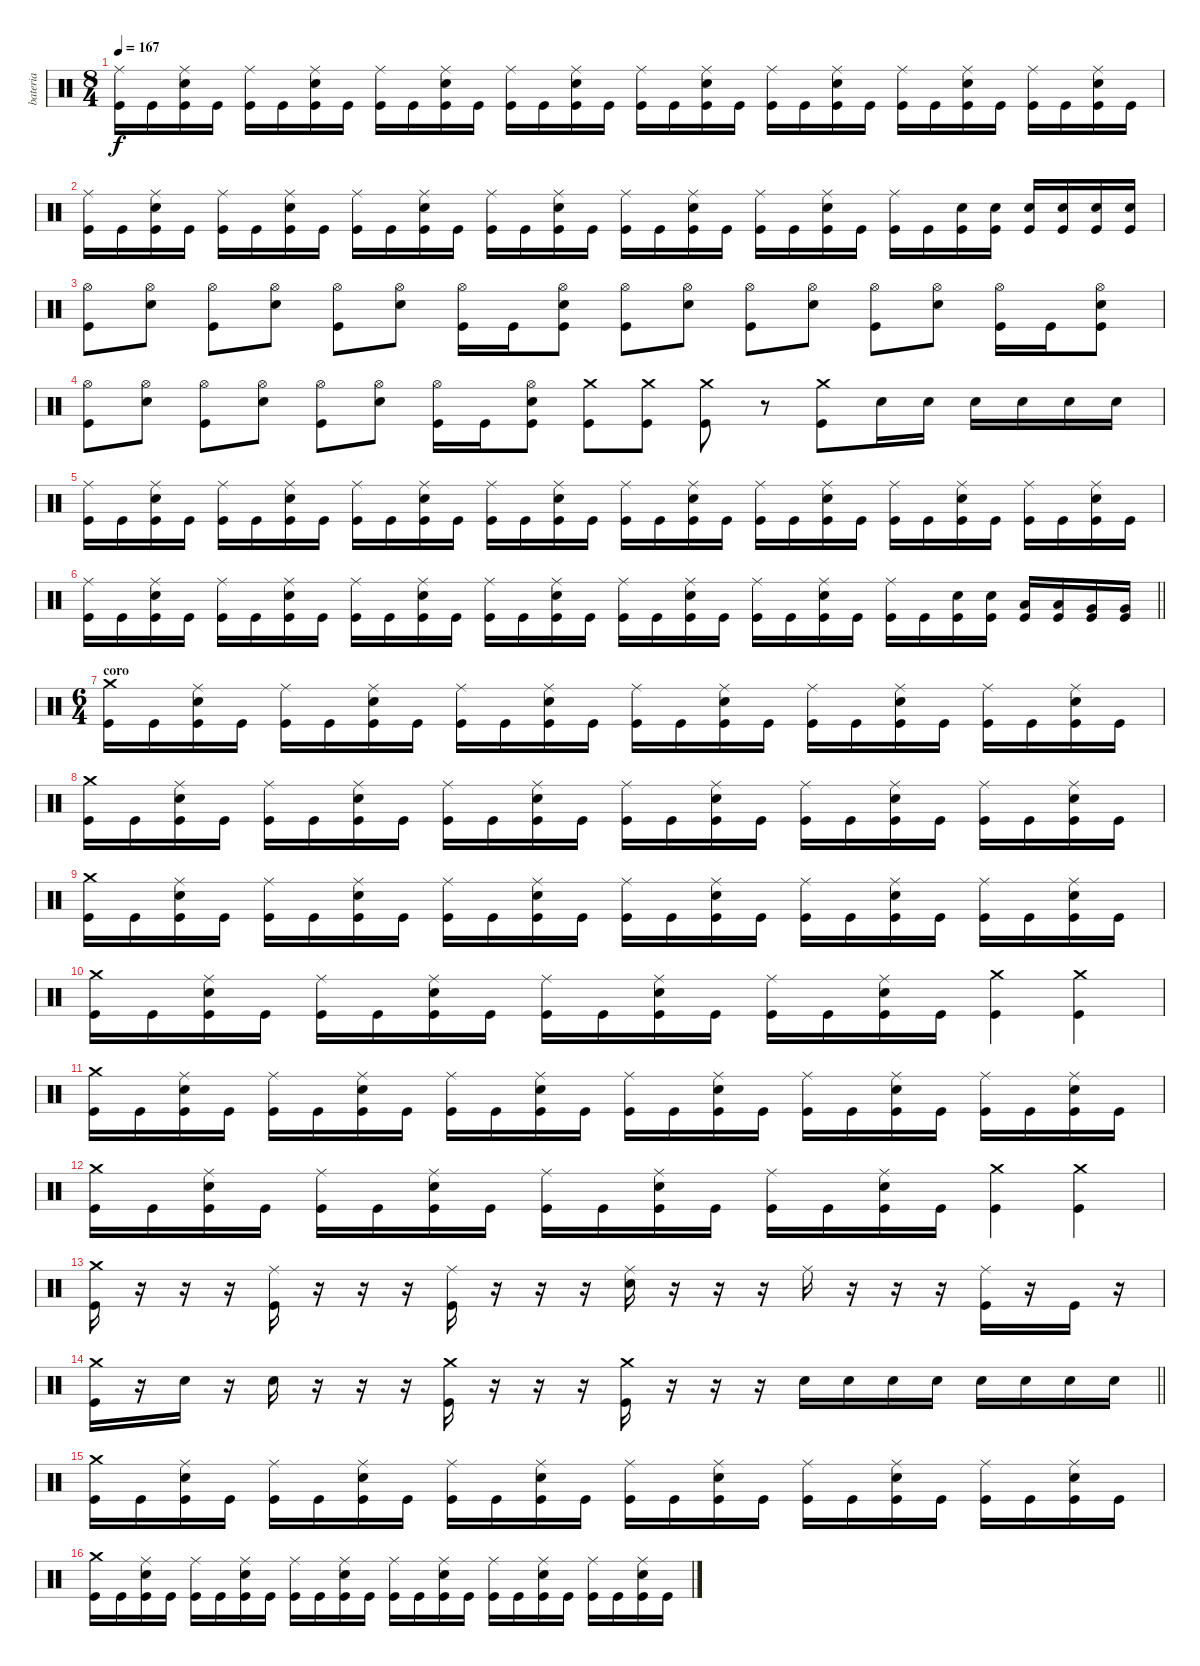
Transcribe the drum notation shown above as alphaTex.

\track ("bateria" "bateria") {instrument percussion}
\staff {score}
\articulation defaults
\ts (8 4)
\tempo 167
\clef neutral
\ks c
("Ride (middle)" "Kick (hit)").16{dy f} "Kick (hit)".16 ("Ride (middle)" "Snare (hit) 2" "Kick (hit)").16 "Kick (hit)".16 ("Ride (middle)" "Kick (hit)").16 "Kick (hit)".16 ("Ride (middle)" "Snare (hit) 2" "Kick (hit)").16 "Kick (hit)".16 ("Ride (middle)" "Kick (hit)").16 "Kick (hit)".16 ("Ride (middle)" "Snare (hit) 2" "Kick (hit)").16 "Kick (hit)".16 ("Ride (middle)" "Kick (hit)").16 "Kick (hit)".16 ("Ride (middle)" "Snare (hit) 2" "Kick (hit)").16 "Kick (hit)".16 ("Ride (middle)" "Kick (hit)").16 "Kick (hit)".16 ("Ride (middle)" "Snare (hit) 2" "Kick (hit)").16 "Kick (hit)".16 ("Ride (middle)" "Kick (hit)").16 "Kick (hit)".16 ("Ride (middle)" "Snare (hit) 2" "Kick (hit)").16 "Kick (hit)".16 ("Ride (middle)" "Kick (hit)").16 "Kick (hit)".16 ("Ride (middle)" "Snare (hit) 2" "Kick (hit)").16 "Kick (hit)".16 ("Ride (middle)" "Kick (hit)").16 "Kick (hit)".16 ("Ride (middle)" "Snare (hit) 2" "Kick (hit)").16 "Kick (hit)".16 |
("Ride (middle)" "Kick (hit)").16 "Kick (hit)".16 ("Ride (middle)" "Snare (hit) 2" "Kick (hit)").16 "Kick (hit)".16 ("Ride (middle)" "Kick (hit)").16 "Kick (hit)".16 ("Ride (middle)" "Snare (hit) 2" "Kick (hit)").16 "Kick (hit)".16 ("Ride (middle)" "Kick (hit)").16 "Kick (hit)".16 ("Ride (middle)" "Snare (hit) 2" "Kick (hit)").16 "Kick (hit)".16 ("Ride (middle)" "Kick (hit)").16 "Kick (hit)".16 ("Ride (middle)" "Snare (hit) 2" "Kick (hit)").16 "Kick (hit)".16 ("Ride (middle)" "Kick (hit)").16 "Kick (hit)".16 ("Ride (middle)" "Snare (hit) 2" "Kick (hit)").16 "Kick (hit)".16 ("Ride (middle)" "Kick (hit)").16 "Kick (hit)".16 ("Ride (middle)" "Snare (hit) 2" "Kick (hit)").16 "Kick (hit)".16 ("Ride (middle)" "Kick (hit)").16 "Kick (hit)".16 ("Snare (hit) 2" "Kick (hit)").16 ("Snare (hit) 2" "Kick (hit)").16 ("Snare (hit) 2" "Kick (hit)").16 ("Snare (hit) 2" "Kick (hit)").16 ("Snare (hit) 2" "Kick (hit)").16 ("Snare (hit) 2" "Kick (hit)").16 |
("Hi-Hat (open)" "Kick (hit)").8 ("Hi-Hat (open)" "Snare (hit) 2").8 ("Hi-Hat (open)" "Kick (hit)").8 ("Hi-Hat (open)" "Snare (hit) 2").8 ("Hi-Hat (open)" "Kick (hit)").8 ("Hi-Hat (open)" "Snare (hit) 2").8 ("Hi-Hat (open)" "Kick (hit)").16 "Kick (hit)".16 ("Hi-Hat (open)" "Snare (hit) 2" "Kick (hit)").8 ("Hi-Hat (open)" "Kick (hit)").8 ("Hi-Hat (open)" "Snare (hit) 2").8 ("Hi-Hat (open)" "Kick (hit)").8 ("Hi-Hat (open)" "Snare (hit) 2").8 ("Hi-Hat (open)" "Kick (hit)").8 ("Hi-Hat (open)" "Snare (hit) 2").8 ("Hi-Hat (open)" "Kick (hit)").16 "Kick (hit)".16 ("Hi-Hat (open)" "Snare (hit) 2" "Kick (hit)").8 |
("Hi-Hat (open)" "Kick (hit)").8 ("Hi-Hat (open)" "Snare (hit) 2").8 ("Hi-Hat (open)" "Kick (hit)").8 ("Hi-Hat (open)" "Snare (hit) 2").8 ("Hi-Hat (open)" "Kick (hit)").8 ("Hi-Hat (open)" "Snare (hit) 2").8 ("Hi-Hat (open)" "Kick (hit)").16 "Kick (hit)".16 ("Hi-Hat (open)" "Snare (hit) 2" "Kick (hit)").8 ("Crash medium (hit)" "Kick (hit)").8 ("Crash medium (hit)" "Kick (hit)").8 ("Crash medium (hit)" "Kick (hit)").8 r.8 ("Crash medium (hit)" "Kick (hit)").8 "Snare (hit) 2".16 "Snare (hit) 2".16 "Snare (hit) 2".16 "Snare (hit) 2".16 "Snare (hit) 2".16 "Snare (hit) 2".16 |
("Ride (middle)" "Kick (hit)").16 "Kick (hit)".16 ("Ride (middle)" "Snare (hit) 2" "Kick (hit)").16 "Kick (hit)".16 ("Ride (middle)" "Kick (hit)").16 "Kick (hit)".16 ("Ride (middle)" "Snare (hit) 2" "Kick (hit)").16 "Kick (hit)".16 ("Ride (middle)" "Kick (hit)").16 "Kick (hit)".16 ("Ride (middle)" "Snare (hit) 2" "Kick (hit)").16 "Kick (hit)".16 ("Ride (middle)" "Kick (hit)").16 "Kick (hit)".16 ("Ride (middle)" "Snare (hit) 2" "Kick (hit)").16 "Kick (hit)".16 ("Ride (middle)" "Kick (hit)").16 "Kick (hit)".16 ("Ride (middle)" "Snare (hit) 2" "Kick (hit)").16 "Kick (hit)".16 ("Ride (middle)" "Kick (hit)").16 "Kick (hit)".16 ("Ride (middle)" "Snare (hit) 2" "Kick (hit)").16 "Kick (hit)".16 ("Ride (middle)" "Kick (hit)").16 "Kick (hit)".16 ("Ride (middle)" "Snare (hit) 2" "Kick (hit)").16 "Kick (hit)".16 ("Ride (middle)" "Kick (hit)").16 "Kick (hit)".16 ("Ride (middle)" "Snare (hit) 2" "Kick (hit)").16 "Kick (hit)".16 |
\barLineRight lightlight
("Ride (middle)" "Kick (hit)").16 "Kick (hit)".16 ("Ride (middle)" "Snare (hit) 2" "Kick (hit)").16 "Kick (hit)".16 ("Ride (middle)" "Kick (hit)").16 "Kick (hit)".16 ("Ride (middle)" "Snare (hit) 2" "Kick (hit)").16 "Kick (hit)".16 ("Ride (middle)" "Kick (hit)").16 "Kick (hit)".16 ("Ride (middle)" "Snare (hit) 2" "Kick (hit)").16 "Kick (hit)".16 ("Ride (middle)" "Kick (hit)").16 "Kick (hit)".16 ("Ride (middle)" "Snare (hit) 2" "Kick (hit)").16 "Kick (hit)".16 ("Ride (middle)" "Kick (hit)").16 "Kick (hit)".16 ("Ride (middle)" "Snare (hit) 2" "Kick (hit)").16 "Kick (hit)".16 ("Ride (middle)" "Kick (hit)").16 "Kick (hit)".16 ("Ride (middle)" "Snare (hit) 2" "Kick (hit)").16 "Kick (hit)".16 ("Ride (middle)" "Kick (hit)").16 "Kick (hit)".16 ("Snare (hit) 2" "Kick (hit)").16 ("Snare (hit) 2" "Kick (hit)").16 ("Low Floor Tom (hit)" "Kick (hit)").16 ("Low Floor Tom (hit)" "Kick (hit)").16 ("Very Low Tom (hit)" "Kick (hit)").16 ("Very Low Tom (hit)" "Kick (hit)").16 |
\ts (6 4)
\section ("" "coro")
("Crash medium (hit)" "Kick (hit)").16 "Kick (hit)".16 ("Ride (middle)" "Snare (hit) 2" "Kick (hit)").16 "Kick (hit)".16 ("Ride (middle)" "Kick (hit)").16 "Kick (hit)".16 ("Ride (middle)" "Snare (hit) 2" "Kick (hit)").16 "Kick (hit)".16 ("Ride (middle)" "Kick (hit)").16 "Kick (hit)".16 ("Ride (middle)" "Snare (hit) 2" "Kick (hit)").16 "Kick (hit)".16 ("Ride (middle)" "Kick (hit)").16 "Kick (hit)".16 ("Ride (middle)" "Snare (hit) 2" "Kick (hit)").16 "Kick (hit)".16 ("Ride (middle)" "Kick (hit)").16 "Kick (hit)".16 ("Ride (middle)" "Snare (hit) 2" "Kick (hit)").16 "Kick (hit)".16 ("Ride (middle)" "Kick (hit)").16 "Kick (hit)".16 ("Ride (middle)" "Snare (hit) 2" "Kick (hit)").16 "Kick (hit)".16 |
("Crash medium (hit)" "Kick (hit)").16 "Kick (hit)".16 ("Ride (middle)" "Snare (hit) 2" "Kick (hit)").16 "Kick (hit)".16 ("Ride (middle)" "Kick (hit)").16 "Kick (hit)".16 ("Ride (middle)" "Snare (hit) 2" "Kick (hit)").16 "Kick (hit)".16 ("Ride (middle)" "Kick (hit)").16 "Kick (hit)".16 ("Ride (middle)" "Snare (hit) 2" "Kick (hit)").16 "Kick (hit)".16 ("Ride (middle)" "Kick (hit)").16 "Kick (hit)".16 ("Ride (middle)" "Snare (hit) 2" "Kick (hit)").16 "Kick (hit)".16 ("Ride (middle)" "Kick (hit)").16 "Kick (hit)".16 ("Ride (middle)" "Snare (hit) 2" "Kick (hit)").16 "Kick (hit)".16 ("Ride (middle)" "Kick (hit)").16 "Kick (hit)".16 ("Ride (middle)" "Snare (hit) 2" "Kick (hit)").16 "Kick (hit)".16 |
("Crash medium (hit)" "Kick (hit)").16 "Kick (hit)".16 ("Ride (middle)" "Snare (hit) 2" "Kick (hit)").16 "Kick (hit)".16 ("Ride (middle)" "Kick (hit)").16 "Kick (hit)".16 ("Ride (middle)" "Snare (hit) 2" "Kick (hit)").16 "Kick (hit)".16 ("Ride (middle)" "Kick (hit)").16 "Kick (hit)".16 ("Ride (middle)" "Snare (hit) 2" "Kick (hit)").16 "Kick (hit)".16 ("Ride (middle)" "Kick (hit)").16 "Kick (hit)".16 ("Ride (middle)" "Snare (hit) 2" "Kick (hit)").16 "Kick (hit)".16 ("Ride (middle)" "Kick (hit)").16 "Kick (hit)".16 ("Ride (middle)" "Snare (hit) 2" "Kick (hit)").16 "Kick (hit)".16 ("Ride (middle)" "Kick (hit)").16 "Kick (hit)".16 ("Ride (middle)" "Snare (hit) 2" "Kick (hit)").16 "Kick (hit)".16 |
("Crash medium (hit)" "Kick (hit)").16 "Kick (hit)".16 ("Ride (middle)" "Snare (hit) 2" "Kick (hit)").16 "Kick (hit)".16 ("Ride (middle)" "Kick (hit)").16 "Kick (hit)".16 ("Ride (middle)" "Snare (hit) 2" "Kick (hit)").16 "Kick (hit)".16 ("Ride (middle)" "Kick (hit)").16 "Kick (hit)".16 ("Ride (middle)" "Snare (hit) 2" "Kick (hit)").16 "Kick (hit)".16 ("Ride (middle)" "Kick (hit)").16 "Kick (hit)".16 ("Ride (middle)" "Snare (hit) 2" "Kick (hit)").16 "Kick (hit)".16 ("Crash medium (hit)" "Kick (hit)").4 ("Crash medium (hit)" "Kick (hit)").4 |
("Crash medium (hit)" "Kick (hit)").16 "Kick (hit)".16 ("Ride (middle)" "Snare (hit) 2" "Kick (hit)").16 "Kick (hit)".16 ("Ride (middle)" "Kick (hit)").16 "Kick (hit)".16 ("Ride (middle)" "Snare (hit) 2" "Kick (hit)").16 "Kick (hit)".16 ("Ride (middle)" "Kick (hit)").16 "Kick (hit)".16 ("Ride (middle)" "Snare (hit) 2" "Kick (hit)").16 "Kick (hit)".16 ("Ride (middle)" "Kick (hit)").16 "Kick (hit)".16 ("Ride (middle)" "Snare (hit) 2" "Kick (hit)").16 "Kick (hit)".16 ("Ride (middle)" "Kick (hit)").16 "Kick (hit)".16 ("Ride (middle)" "Snare (hit) 2" "Kick (hit)").16 "Kick (hit)".16 ("Ride (middle)" "Kick (hit)").16 "Kick (hit)".16 ("Ride (middle)" "Snare (hit) 2" "Kick (hit)").16 "Kick (hit)".16 |
("Crash medium (hit)" "Kick (hit)").16 "Kick (hit)".16 ("Ride (middle)" "Snare (hit) 2" "Kick (hit)").16 "Kick (hit)".16 ("Ride (middle)" "Kick (hit)").16 "Kick (hit)".16 ("Ride (middle)" "Snare (hit) 2" "Kick (hit)").16 "Kick (hit)".16 ("Ride (middle)" "Kick (hit)").16 "Kick (hit)".16 ("Ride (middle)" "Snare (hit) 2" "Kick (hit)").16 "Kick (hit)".16 ("Ride (middle)" "Kick (hit)").16 "Kick (hit)".16 ("Ride (middle)" "Snare (hit) 2" "Kick (hit)").16 "Kick (hit)".16 ("Crash medium (hit)" "Kick (hit)").4 ("Crash medium (hit)" "Kick (hit)").4 |
("Crash medium (hit)" "Kick (hit)").16 r.16 r.16 r.16 ("Ride (middle)" "Kick (hit)").16 r.16 r.16 r.16 ("Ride (middle)" "Kick (hit)").16 r.16 r.16 r.16 ("Ride (middle)" "Snare (hit) 2").16 r.16 r.16 r.16 "Ride (middle)".16 r.16 r.16 r.16 ("Ride (middle)" "Kick (hit)").16 r.16 "Kick (hit)".16 r.16 |
\barLineRight lightlight
("Crash medium (hit)" "Kick (hit)").16 r.16 "Snare (hit) 2".16 r.16 "Snare (hit) 2".16 r.16 r.16 r.16 ("Crash medium (hit)" "Kick (hit)").16 r.16 r.16 r.16 ("Crash medium (hit)" "Kick (hit)").16 r.16 r.16 r.16 "Snare (hit) 2".16 "Snare (hit) 2".16 "Snare (hit) 2".16 "Snare (hit) 2".16 "Snare (hit) 2".16 "Snare (hit) 2".16 "Snare (hit) 2".16 "Snare (hit) 2".16 |
("Crash medium (hit)" "Kick (hit)").16 "Kick (hit)".16 ("Ride (middle)" "Snare (hit) 2" "Kick (hit)").16 "Kick (hit)".16 ("Ride (middle)" "Kick (hit)").16 "Kick (hit)".16 ("Ride (middle)" "Snare (hit) 2" "Kick (hit)").16 "Kick (hit)".16 ("Ride (middle)" "Kick (hit)").16 "Kick (hit)".16 ("Ride (middle)" "Snare (hit) 2" "Kick (hit)").16 "Kick (hit)".16 ("Ride (middle)" "Kick (hit)").16 "Kick (hit)".16 ("Ride (middle)" "Snare (hit) 2" "Kick (hit)").16 "Kick (hit)".16 ("Ride (middle)" "Kick (hit)").16 "Kick (hit)".16 ("Ride (middle)" "Snare (hit) 2" "Kick (hit)").16 "Kick (hit)".16 ("Ride (middle)" "Kick (hit)").16 "Kick (hit)".16 ("Ride (middle)" "Snare (hit) 2" "Kick (hit)").16 "Kick (hit)".16 |
("Crash medium (hit)" "Kick (hit)").16 "Kick (hit)".16 ("Ride (middle)" "Snare (hit) 2" "Kick (hit)").16 "Kick (hit)".16 ("Ride (middle)" "Kick (hit)").16 "Kick (hit)".16 ("Ride (middle)" "Snare (hit) 2" "Kick (hit)").16 "Kick (hit)".16 ("Ride (middle)" "Kick (hit)").16 "Kick (hit)".16 ("Ride (middle)" "Snare (hit) 2" "Kick (hit)").16 "Kick (hit)".16 ("Ride (middle)" "Kick (hit)").16 "Kick (hit)".16 ("Ride (middle)" "Snare (hit) 2" "Kick (hit)").16 "Kick (hit)".16 ("Ride (middle)" "Kick (hit)").16 "Kick (hit)".16 ("Ride (middle)" "Snare (hit) 2" "Kick (hit)").16 "Kick (hit)".16 ("Ride (middle)" "Kick (hit)").16 "Kick (hit)".16 ("Ride (middle)" "Snare (hit) 2" "Kick (hit)").16 "Kick (hit)".16
